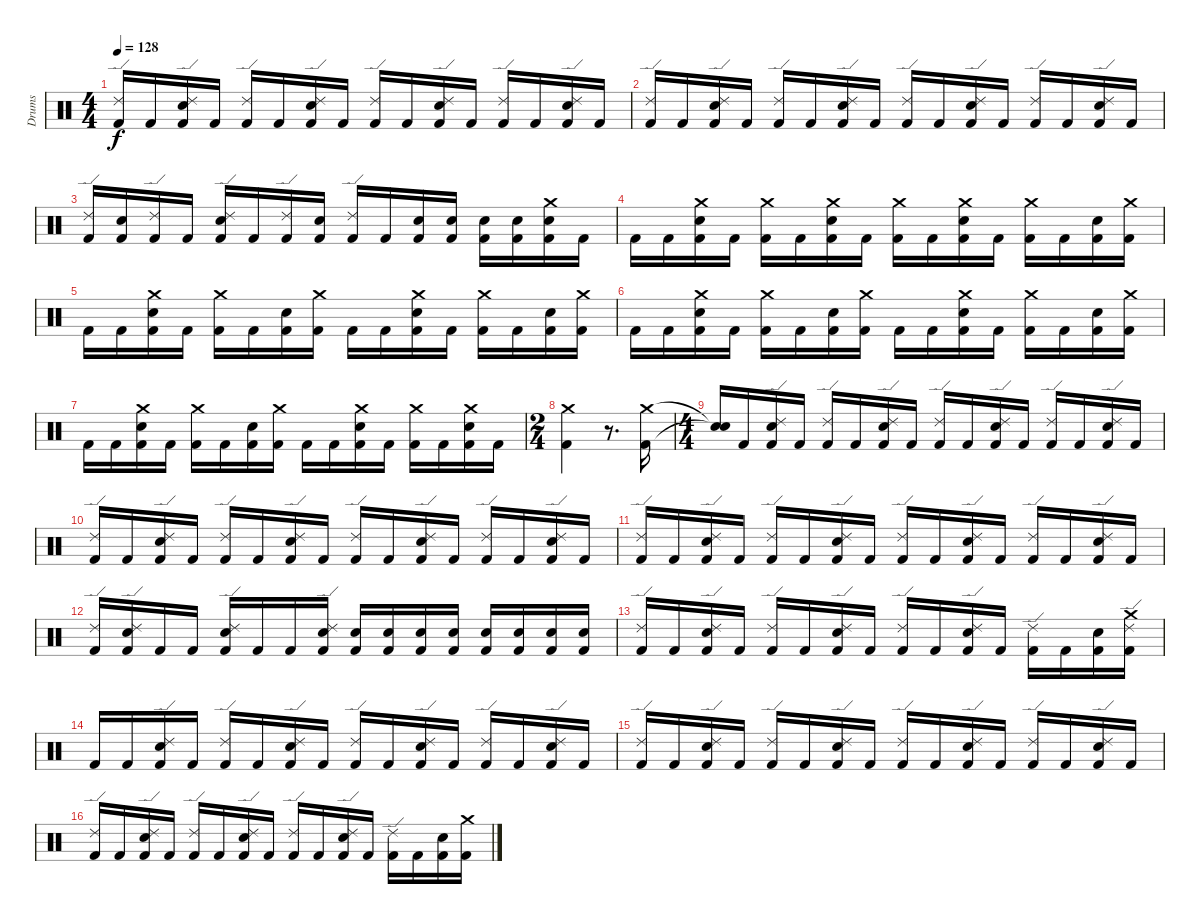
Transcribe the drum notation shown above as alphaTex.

\track ("Drums" "Drums") {instrument percussion}
\staff {score}
\articulation defaults
\ts (4 4)
\tempo 128
\clef neutral
\ks c
("Ride (edge) 2" "Kick (hit) 2").16{dy f} "Kick (hit) 2".16 ("Ride (edge) 2" "Snare (hit) 2" "Kick (hit) 2").16 "Kick (hit) 2".16 ("Ride (edge) 2" "Kick (hit) 2").16 "Kick (hit) 2".16 ("Ride (edge) 2" "Snare (hit) 2" "Kick (hit) 2").16 "Kick (hit) 2".16 ("Ride (edge) 2" "Kick (hit) 2").16 "Kick (hit) 2".16 ("Ride (edge) 2" "Snare (hit) 2" "Kick (hit) 2").16 "Kick (hit) 2".16 ("Ride (edge) 2" "Kick (hit) 2").16 "Kick (hit) 2".16 ("Ride (edge) 2" "Snare (hit) 2" "Kick (hit) 2").16 "Kick (hit) 2".16 |
("Ride (edge) 2" "Kick (hit) 2").16 "Kick (hit) 2".16 ("Ride (edge) 2" "Snare (hit) 2" "Kick (hit) 2").16 "Kick (hit) 2".16 ("Ride (edge) 2" "Kick (hit) 2").16 "Kick (hit) 2".16 ("Ride (edge) 2" "Snare (hit) 2" "Kick (hit) 2").16 "Kick (hit) 2".16 ("Ride (edge) 2" "Kick (hit) 2").16 "Kick (hit) 2".16 ("Ride (edge) 2" "Snare (hit) 2" "Kick (hit) 2").16 "Kick (hit) 2".16 ("Ride (edge) 2" "Kick (hit) 2").16 "Kick (hit) 2".16 ("Ride (edge) 2" "Snare (hit) 2" "Kick (hit) 2").16 "Kick (hit) 2".16 |
("Ride (edge) 2" "Kick (hit) 2").16 ("Snare (hit) 2" "Kick (hit) 2").16 ("Ride (edge) 2" "Kick (hit) 2").16 "Kick (hit) 2".16 ("Ride (edge) 2" "Snare (hit) 2" "Kick (hit) 2").16 "Kick (hit) 2".16 ("Ride (edge) 2" "Kick (hit) 2").16 ("Snare (hit) 2" "Kick (hit) 2").16 ("Ride (edge) 2" "Kick (hit) 2").16 "Kick (hit) 2".16 ("Snare (hit) 2" "Kick (hit) 2").16 ("Snare (hit) 2" "Kick (hit) 2").16 ("Snare (hit) 2" "Kick (hit) 2").16 ("Snare (hit) 2" "Kick (hit) 2").16 ("Crash medium (hit)" "Snare (hit) 2" "Kick (hit) 2").16 "Kick (hit) 2".16 |
"Kick (hit) 2".16 "Kick (hit) 2".16 ("Crash medium (hit)" "Snare (hit) 2" "Kick (hit) 2").16 "Kick (hit) 2".16 ("Crash medium (hit)" "Kick (hit) 2").16 "Kick (hit) 2".16 ("Crash medium (hit)" "Snare (hit) 2" "Kick (hit) 2").16 "Kick (hit) 2".16 ("Crash medium (hit)" "Kick (hit) 2").16 "Kick (hit) 2".16 ("Crash medium (hit)" "Snare (hit) 2" "Kick (hit) 2").16 "Kick (hit) 2".16 ("Crash medium (hit)" "Kick (hit) 2").16 "Kick (hit) 2".16 ("Snare (hit) 2" "Kick (hit) 2").16 ("Crash medium (hit)" "Kick (hit) 2").16 |
"Kick (hit) 2".16 "Kick (hit) 2".16 ("Crash medium (hit)" "Snare (hit) 2" "Kick (hit) 2").16 "Kick (hit) 2".16 ("Crash medium (hit)" "Kick (hit) 2").16 "Kick (hit) 2".16 ("Snare (hit) 2" "Kick (hit) 2").16 ("Crash medium (hit)" "Kick (hit) 2").16 "Kick (hit) 2".16 "Kick (hit) 2".16 ("Crash medium (hit)" "Snare (hit) 2" "Kick (hit) 2").16 "Kick (hit) 2".16 ("Crash medium (hit)" "Kick (hit) 2").16 "Kick (hit) 2".16 ("Snare (hit) 2" "Kick (hit) 2").16 ("Crash medium (hit)" "Kick (hit) 2").16 |
"Kick (hit) 2".16 "Kick (hit) 2".16 ("Crash medium (hit)" "Snare (hit) 2" "Kick (hit) 2").16 "Kick (hit) 2".16 ("Crash medium (hit)" "Kick (hit) 2").16 "Kick (hit) 2".16 ("Snare (hit) 2" "Kick (hit) 2").16 ("Crash medium (hit)" "Kick (hit) 2").16 "Kick (hit) 2".16 "Kick (hit) 2".16 ("Crash medium (hit)" "Snare (hit) 2" "Kick (hit) 2").16 "Kick (hit) 2".16 ("Crash medium (hit)" "Kick (hit) 2").16 "Kick (hit) 2".16 ("Snare (hit) 2" "Kick (hit) 2").16 ("Crash medium (hit)" "Kick (hit) 2").16 |
"Kick (hit) 2".16 "Kick (hit) 2".16 ("Crash medium (hit)" "Snare (hit) 2" "Kick (hit) 2").16 "Kick (hit) 2".16 ("Crash medium (hit)" "Kick (hit) 2").16 "Kick (hit) 2".16 ("Snare (hit) 2" "Kick (hit) 2").16 ("Crash medium (hit)" "Kick (hit) 2").16 "Kick (hit) 2".16 "Kick (hit) 2".16 ("Crash medium (hit)" "Snare (hit) 2" "Kick (hit) 2").16 "Kick (hit) 2".16 ("Crash medium (hit)" "Kick (hit) 2").16 "Kick (hit) 2".16 ("Crash medium (hit)" "Snare (hit) 2" "Kick (hit) 2").16 "Kick (hit) 2".16 |
\ts (2 4)
("Crash medium (hit)" "Kick (hit) 2").4 r.8{d} ("Crash medium (hit)" "Kick (hit) 2").16 |
\ts (4 4)
("Snare (hit)"{t} "Snare (hit)"{t}).16 "Kick (hit) 2".16 ("Ride (edge) 2" "Snare (hit) 2" "Kick (hit) 2").16 "Kick (hit) 2".16 ("Ride (edge) 2" "Kick (hit) 2").16 "Kick (hit) 2".16 ("Ride (edge) 2" "Snare (hit) 2" "Kick (hit) 2").16 "Kick (hit) 2".16 ("Ride (edge) 2" "Kick (hit) 2").16 "Kick (hit) 2".16 ("Ride (edge) 2" "Snare (hit) 2" "Kick (hit) 2").16 "Kick (hit) 2".16 ("Ride (edge) 2" "Kick (hit) 2").16 "Kick (hit) 2".16 ("Ride (edge) 2" "Snare (hit) 2" "Kick (hit) 2").16 "Kick (hit) 2".16 |
("Ride (edge) 2" "Kick (hit) 2").16 "Kick (hit) 2".16 ("Ride (edge) 2" "Snare (hit) 2" "Kick (hit) 2").16 "Kick (hit) 2".16 ("Ride (edge) 2" "Kick (hit) 2").16 "Kick (hit) 2".16 ("Ride (edge) 2" "Snare (hit) 2" "Kick (hit) 2").16 "Kick (hit) 2".16 ("Ride (edge) 2" "Kick (hit) 2").16 "Kick (hit) 2".16 ("Ride (edge) 2" "Snare (hit) 2" "Kick (hit) 2").16 "Kick (hit) 2".16 ("Ride (edge) 2" "Kick (hit) 2").16 "Kick (hit) 2".16 ("Ride (edge) 2" "Snare (hit) 2" "Kick (hit) 2").16 "Kick (hit) 2".16 |
("Ride (edge) 2" "Kick (hit) 2").16 "Kick (hit) 2".16 ("Ride (edge) 2" "Snare (hit) 2" "Kick (hit) 2").16 "Kick (hit) 2".16 ("Ride (edge) 2" "Kick (hit) 2").16 "Kick (hit) 2".16 ("Ride (edge) 2" "Snare (hit) 2" "Kick (hit) 2").16 "Kick (hit) 2".16 ("Ride (edge) 2" "Kick (hit) 2").16 "Kick (hit) 2".16 ("Ride (edge) 2" "Snare (hit) 2" "Kick (hit) 2").16 "Kick (hit) 2".16 ("Ride (edge) 2" "Kick (hit) 2").16 "Kick (hit) 2".16 ("Ride (edge) 2" "Snare (hit) 2" "Kick (hit) 2").16 "Kick (hit) 2".16 |
("Ride (edge) 2" "Kick (hit) 2").16 ("Ride (edge) 2" "Snare (hit) 2" "Kick (hit) 2").16 "Kick (hit) 2".16 "Kick (hit) 2".16 ("Ride (edge) 2" "Snare (hit) 2" "Kick (hit) 2").16 "Kick (hit) 2".16 "Kick (hit) 2".16 ("Ride (edge) 2" "Snare (hit) 2" "Kick (hit) 2").16 ("Snare (hit) 2" "Kick (hit) 2").16 ("Snare (hit) 2" "Kick (hit) 2").16 ("Snare (hit) 2" "Kick (hit) 2").16 ("Snare (hit) 2" "Kick (hit) 2").16 ("Snare (hit) 2" "Kick (hit) 2").16 ("Snare (hit) 2" "Kick (hit) 2").16 ("Snare (hit) 2" "Kick (hit) 2").16 ("Snare (hit) 2" "Kick (hit) 2").16 |
("Ride (edge) 2" "Kick (hit) 2").16 "Kick (hit) 2".16 ("Ride (edge) 2" "Snare (hit) 2" "Kick (hit) 2").16 "Kick (hit) 2".16 ("Ride (edge) 2" "Kick (hit) 2").16 "Kick (hit) 2".16 ("Ride (edge) 2" "Snare (hit) 2" "Kick (hit) 2").16 "Kick (hit) 2".16 ("Ride (edge) 2" "Kick (hit) 2").16 "Kick (hit) 2".16 ("Ride (edge) 2" "Snare (hit) 2" "Kick (hit) 2").16 "Kick (hit) 2".16 ("Ride (edge) 2" "Kick (hit) 2").16 "Kick (hit) 2".16 ("Snare (hit) 2" "Kick (hit) 2").16 ("Crash medium (hit)" "Ride (edge) 2" "Kick (hit) 2").16 |
"Kick (hit) 2".16 "Kick (hit) 2".16 ("Ride (edge) 2" "Snare (hit) 2" "Kick (hit) 2").16 "Kick (hit) 2".16 ("Ride (edge) 2" "Kick (hit) 2").16 "Kick (hit) 2".16 ("Ride (edge) 2" "Snare (hit) 2" "Kick (hit) 2").16 "Kick (hit) 2".16 ("Ride (edge) 2" "Kick (hit) 2").16 "Kick (hit) 2".16 ("Ride (edge) 2" "Snare (hit) 2" "Kick (hit) 2").16 "Kick (hit) 2".16 ("Ride (edge) 2" "Kick (hit) 2").16 "Kick (hit) 2".16 ("Ride (edge) 2" "Snare (hit) 2" "Kick (hit) 2").16 "Kick (hit) 2".16 |
("Ride (edge) 2" "Kick (hit) 2").16 "Kick (hit) 2".16 ("Ride (edge) 2" "Snare (hit) 2" "Kick (hit) 2").16 "Kick (hit) 2".16 ("Ride (edge) 2" "Kick (hit) 2").16 "Kick (hit) 2".16 ("Ride (edge) 2" "Snare (hit) 2" "Kick (hit) 2").16 "Kick (hit) 2".16 ("Ride (edge) 2" "Kick (hit) 2").16 "Kick (hit) 2".16 ("Ride (edge) 2" "Snare (hit) 2" "Kick (hit) 2").16 "Kick (hit) 2".16 ("Ride (edge) 2" "Kick (hit) 2").16 "Kick (hit) 2".16 ("Ride (edge) 2" "Snare (hit) 2" "Kick (hit) 2").16 "Kick (hit) 2".16 |
("Ride (edge) 2" "Kick (hit) 2").16 "Kick (hit) 2".16 ("Ride (edge) 2" "Snare (hit) 2" "Kick (hit) 2").16 "Kick (hit) 2".16 ("Ride (edge) 2" "Kick (hit) 2").16 "Kick (hit) 2".16 ("Ride (edge) 2" "Snare (hit) 2" "Kick (hit) 2").16 "Kick (hit) 2".16 ("Ride (edge) 2" "Kick (hit) 2").16 "Kick (hit) 2".16 ("Ride (edge) 2" "Snare (hit) 2" "Kick (hit) 2").16 "Kick (hit) 2".16 ("Ride (edge) 2" "Kick (hit) 2").16 "Kick (hit) 2".16 ("Snare (hit) 2" "Kick (hit) 2").16 ("Crash medium (hit)" "Kick (hit) 2").16
